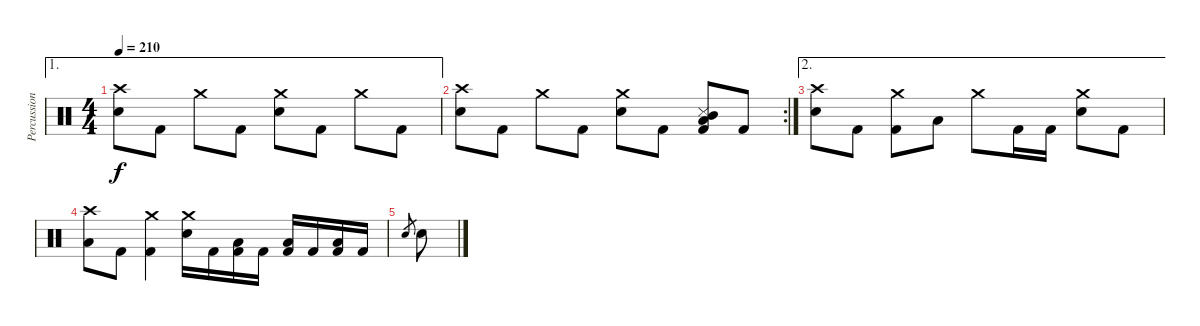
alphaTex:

\track ("Percussions" "Percussion") {instrument percussion}
\staff {score}
\articulation defaults
\ae 1
\ts (4 4)
\tempo 210
\clef neutral
\ks c
("Electric Snare (hit)" "Crash high (hit)").8{dy f} "Kick (hit) 2".8 "Crash medium (hit)".8 "Kick (hit) 2".8 ("Electric Snare (hit)" "Crash medium (hit)").8 "Kick (hit) 2".8 "Crash medium (hit)".8 "Kick (hit) 2".8 |
\rc 2
("Electric Snare (hit)" "Crash high (hit)").8 "Kick (hit) 2".8 "Crash medium (hit)".8 "Kick (hit) 2".8 ("Electric Snare (hit)" "Crash medium (hit)").8 "Kick (hit) 2".8 ("Kick (hit) 2" "Metronome (hit)" "Mid Tom (hit)" "Low Tom (hit)").8 "Kick (hit) 2".8 |
\ae 2
("Electric Snare (hit)" "Crash high (hit)").8 "Kick (hit) 2".8 ("Kick (hit) 2" "Crash medium (hit)").8 "Low Tom (hit)".8 "Crash medium (hit)".8 "Kick (hit) 2".16 "Kick (hit) 2".16 ("Electric Snare (hit)" "Crash medium (hit)").8 "Kick (hit) 2".8 |
("Low Tom (hit)" "Crash high (hit)").8 "Kick (hit) 2".8 ("Kick (hit) 2" "Crash medium (hit)").4 ("Electric Snare (hit)" "Crash medium (hit)").16 "Kick (hit) 2".16 ("Kick (hit) 2" "Low Tom (hit)").16 "Kick (hit) 2".16 ("Kick (hit) 2" "Low Tom (hit)").16 "Kick (hit) 2".16 ("Kick (hit) 2" "Low Tom (hit)").16 "Kick (hit) 2".16 |
"Electric Snare (hit)".8{gr} "Electric Snare (hit)".8
